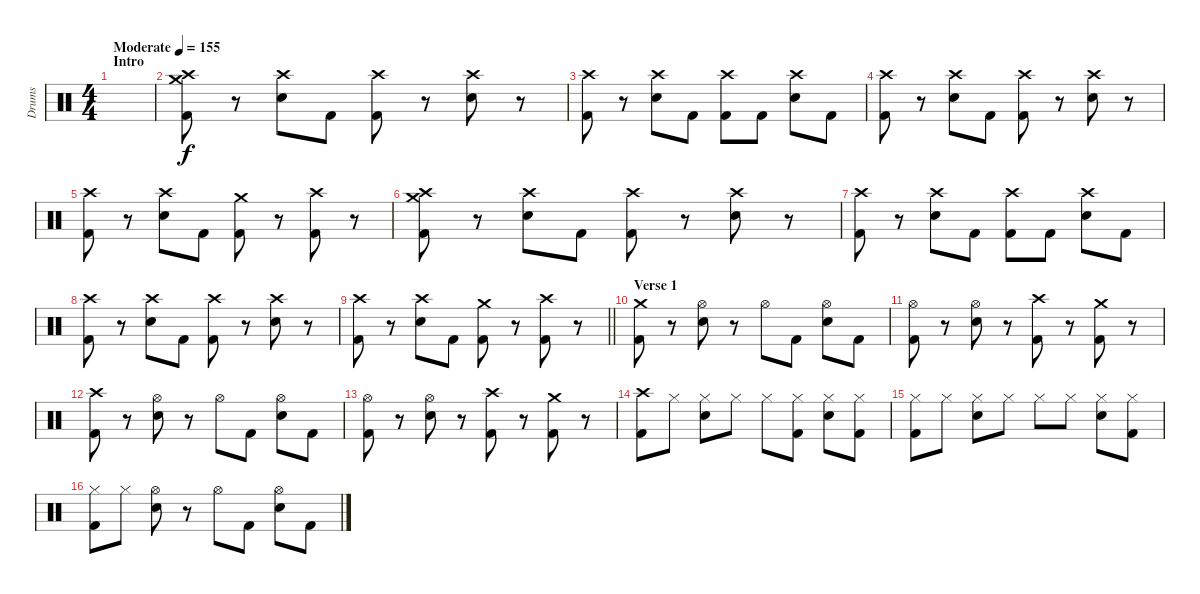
\track ("Drums" "Drums") {instrument percussion}
\staff {score}
\articulation defaults
\ts (4 4)
\section ("" "Intro")
\tempo (155 "Moderate")
\clef neutral
\ks c
|
("Crash medium (hit)" "Crash high (hit)" "Kick (hit) 2").8 r.8 ("Crash high (hit)" "Electric Snare (hit)").8 "Kick (hit) 2".8 ("Crash high (hit)" "Kick (hit) 2").8 r.8 ("Crash high (hit)" "Electric Snare (hit)").8 r.8 |
("Crash high (hit)" "Kick (hit) 2").8 r.8 ("Crash high (hit)" "Electric Snare (hit)").8 "Kick (hit) 2".8 ("Crash high (hit)" "Kick (hit) 2").8 "Kick (hit) 2".8 ("Crash high (hit)" "Electric Snare (hit)").8 "Kick (hit) 2".8 |
("Crash high (hit)" "Kick (hit) 2").8 r.8 ("Crash high (hit)" "Electric Snare (hit)").8 "Kick (hit) 2".8 ("Crash high (hit)" "Kick (hit) 2").8 r.8 ("Crash high (hit)" "Electric Snare (hit)").8 r.8 |
("Crash high (hit)" "Kick (hit) 2").8 r.8 ("Crash high (hit)" "Electric Snare (hit)").8 "Kick (hit) 2".8 ("Crash medium (hit)" "Kick (hit) 2").8 r.8 ("Crash high (hit)" "Kick (hit) 2").8 r.8 |
("Crash medium (hit)" "Crash high (hit)" "Kick (hit) 2").8 r.8 ("Crash high (hit)" "Electric Snare (hit)").8 "Kick (hit) 2".8 ("Crash high (hit)" "Kick (hit) 2").8 r.8 ("Crash high (hit)" "Electric Snare (hit)").8 r.8 |
("Crash high (hit)" "Kick (hit) 2").8 r.8 ("Crash high (hit)" "Electric Snare (hit)").8 "Kick (hit) 2".8 ("Crash high (hit)" "Kick (hit) 2").8 "Kick (hit) 2".8 ("Crash high (hit)" "Electric Snare (hit)").8 "Kick (hit) 2".8 |
("Crash high (hit)" "Kick (hit) 2").8 r.8 ("Crash high (hit)" "Electric Snare (hit)").8 "Kick (hit) 2".8 ("Crash high (hit)" "Kick (hit) 2").8 r.8 ("Crash high (hit)" "Electric Snare (hit)").8 r.8 |
\barLineRight lightlight
("Crash high (hit)" "Kick (hit) 2").8 r.8 ("Crash high (hit)" "Electric Snare (hit)").8 "Kick (hit) 2".8 ("Crash medium (hit)" "Kick (hit) 2").8 r.8 ("Crash high (hit)" "Kick (hit) 2").8 r.8 |
\section ("" "Verse 1")
("Crash medium (hit)" "Kick (hit) 2").8 r.8 ("Hi-Hat (open)" "Electric Snare (hit)").8 r.8 "Hi-Hat (open)".8 "Kick (hit) 2".8 ("Hi-Hat (open)" "Electric Snare (hit)").8 "Kick (hit) 2".8 |
("Hi-Hat (open)" "Kick (hit) 2").8 r.8 ("Hi-Hat (open)" "Electric Snare (hit)").8 r.8 ("Crash high (hit)" "Kick (hit) 2").8 r.8 ("Crash medium (hit)" "Kick (hit) 2").8 r.8 |
("Crash high (hit)" "Kick (hit) 2").8 r.8 ("Hi-Hat (open)" "Electric Snare (hit)").8 r.8 "Hi-Hat (open)".8 "Kick (hit) 2".8 ("Hi-Hat (open)" "Electric Snare (hit)").8 "Kick (hit) 2".8 |
("Hi-Hat (open)" "Kick (hit) 2").8 r.8 ("Hi-Hat (open)" "Electric Snare (hit)").8 r.8 ("Crash high (hit)" "Kick (hit) 2").8 r.8 ("Crash medium (hit)" "Kick (hit) 2").8 r.8 |
("Crash high (hit)" "Kick (hit) 2").8 "Hi-Hat (closed)".8 ("Hi-Hat (closed)" "Electric Snare (hit)").8 "Hi-Hat (closed)".8 "Hi-Hat (closed)".8 ("Hi-Hat (closed)" "Kick (hit) 2").8 ("Hi-Hat (closed)" "Electric Snare (hit)").8 ("Hi-Hat (closed)" "Kick (hit) 2").8 |
("Hi-Hat (closed)" "Kick (hit) 2").8 "Hi-Hat (closed)".8 ("Hi-Hat (closed)" "Electric Snare (hit)").8 "Hi-Hat (closed)".8 "Hi-Hat (closed)".8 "Hi-Hat (closed)".8 ("Hi-Hat (closed)" "Electric Snare (hit)").8 ("Hi-Hat (closed)" "Kick (hit) 2").8 |
("Hi-Hat (closed)" "Kick (hit) 2").8 "Hi-Hat (closed)".8 ("Hi-Hat (open)" "Electric Snare (hit)").8 r.8 "Hi-Hat (open)".8 "Kick (hit) 2".8 ("Hi-Hat (open)" "Electric Snare (hit)").8 "Kick (hit) 2".8
